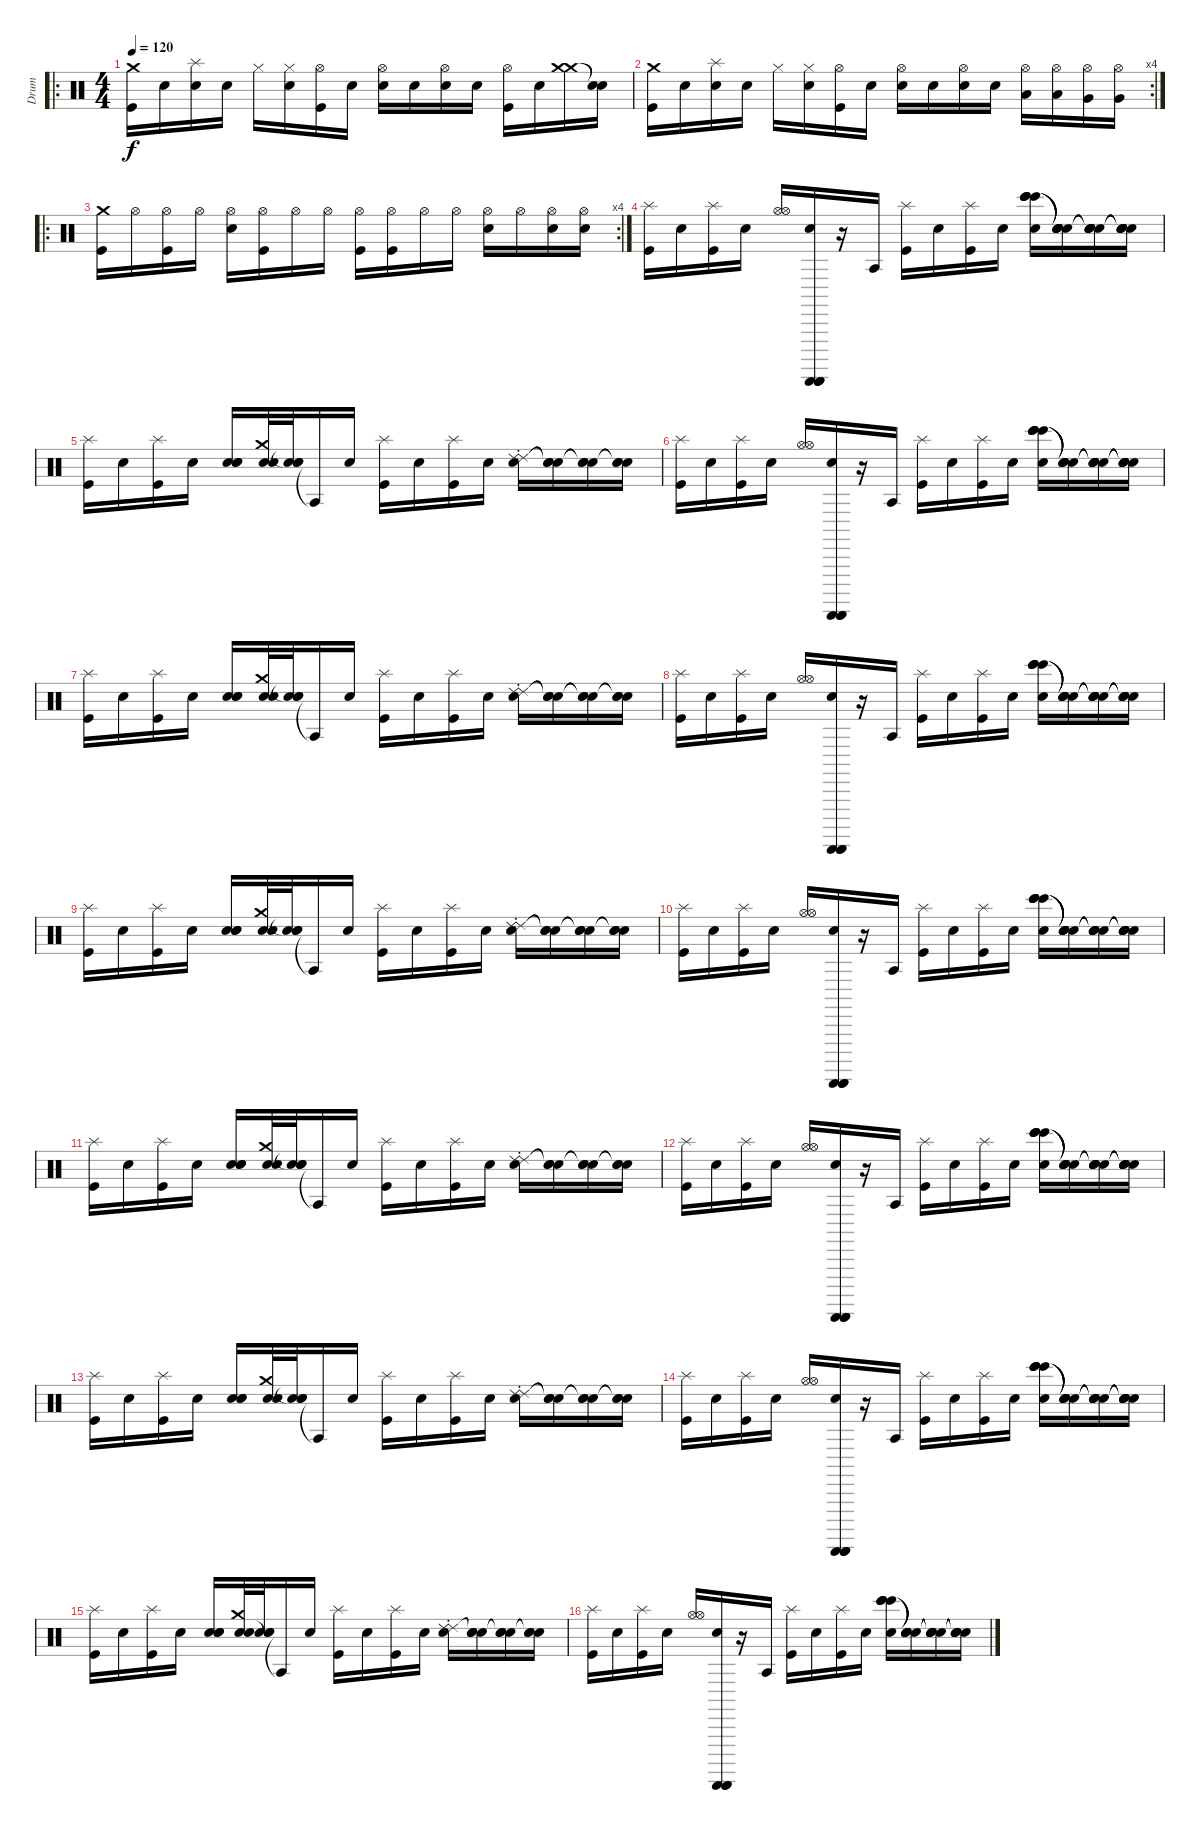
\track ("Drum" "Drum") {instrument percussion}
\staff {score}
\articulation defaults
\ro
\ts (4 4)
\tempo 120
\clef neutral
\ks c
("Crash medium (hit)" "Kick (hit)").16{dy f} "Snare (hit)".16 ("Splash (hit)" "Electric Snare (hit)").16 "Snare (hit)".16 "Hi-Hat (closed)".16 ("Hi-Hat (closed)" "Electric Snare (hit)").16 ("Hi-Hat (open)" "Kick (hit)").16 "Snare (hit)".16 ("Hi-Hat (open)" "Electric Snare (hit)").16 "Snare (hit)".16 ("Hi-Hat (open)" "Electric Snare (hit)").16 "Snare (hit)".16 ("Hi-Hat (open)" "Kick (hit)").16 "Snare (hit)".16 ("Crash medium (hit)" "Crash medium (hit)").16 ("Snare (hit)"{t} "Snare (hit)"{t}).16 |
\rc 4
("Crash medium (hit)" "Kick (hit)").16 "Snare (hit)".16 ("Splash (hit)" "Electric Snare (hit)").16 "Snare (hit)".16 "Hi-Hat (closed)".16 ("Hi-Hat (closed)" "Electric Snare (hit)").16 ("Hi-Hat (open)" "Kick (hit)").16 "Snare (hit)".16 ("Hi-Hat (open)" "Electric Snare (hit)").16 "Snare (hit)".16 ("Hi-Hat (open)" "Electric Snare (hit)").16 "Snare (hit)".16 ("Hi-Hat (open)" "Low Tom (hit)").16 ("Hi-Hat (open)" "Low Tom (hit)").16 ("Hi-Hat (open)" "Very Low Tom (hit)").16 ("Hi-Hat (open)" "Very Low Tom (hit)").16 |
\ro
\rc 4
("Crash medium (hit)" "Kick (hit)").16 "Hi-Hat (open)".16 ("Hi-Hat (open)" "Kick (hit)").16 "Hi-Hat (open)".16 ("Hi-Hat (open)" "Electric Snare (hit)").16 ("Hi-Hat (open)" "Kick (hit)").16 "Hi-Hat (open)".16 "Hi-Hat (open)".16 ("Hi-Hat (open)" "Kick (hit)").16 ("Hi-Hat (open)" "Kick (hit)").16 "Hi-Hat (open)".16 "Hi-Hat (open)".16 ("Hi-Hat (open)" "Electric Snare (hit)").16 "Hi-Hat (open)".16 ("Hi-Hat (open)" "Electric Snare (hit)").16 ("Hi-Hat (open)" "Electric Snare (hit)").16 |
("Splash (hit)" "Kick (hit)").16 "Snare (hit)".16 ("Splash (hit)" "Kick (hit)").16 "Snare (hit)".16 ("Hi-Hat (open)" "Hi-Hat (open)").16 ("Snare (hit)" "Guiro (scrap-return)" "Guiro (scrap-return)" "Guiro (scrap-return)").16 r.16 "Agogo tow (hit)".16 ("Splash (hit)" "Kick (hit)").16 "Snare (hit)".16 ("Splash (hit)" "Kick (hit)").16 "Snare (hit)".16 ("Snare (hit)" "Bongo High (hit)" "Bongo High (hit)" "Bongo High (hit)" "Bongo High (hit)").16 ("Snare (hit)" "Snare (hit)"{t} "Snare (hit)"{t} "Snare (hit)"{t} "Snare (hit)"{t}).16 ("Snare (hit)" "Snare (hit)"{t} "Snare (hit)"{t} "Snare (hit)"{t} "Snare (hit)"{t}).16 ("Snare (hit)" "Snare (hit)"{t} "Snare (hit)"{t} "Snare (hit)"{t} "Snare (hit)"{t}).16 |
("Splash (hit)" "Kick (hit)").16 "Snare (hit)".16 ("Splash (hit)" "Kick (hit)").16 "Snare (hit)".16 ("Snare (hit)" "Snare (hit)" "Snare (hit)").16 ("Crash medium (hit)" "Snare (hit)" "Snare (hit)").32 ("Snare (hit)"{t} "Snare (hit)" "Snare (hit)").32 "Agogo tow (hit)"{t}.16 "Snare (hit)".16 ("Splash (hit)" "Kick (hit)").16 "Snare (hit)".16 ("Splash (hit)" "Kick (hit)").16 "Snare (hit)".16 ("Snare (hit)" "Ride (choke) 2" "Ride (choke) 2").16 ("Snare (hit)" "Snare (hit)"{t} "Snare (hit)"{t}).16 ("Snare (hit)" "Snare (hit)"{t} "Snare (hit)"{t}).16 ("Snare (hit)" "Snare (hit)"{t} "Snare (hit)"{t}).16 |
("Splash (hit)" "Kick (hit)").16 "Snare (hit)".16 ("Splash (hit)" "Kick (hit)").16 "Snare (hit)".16 ("Hi-Hat (open)" "Hi-Hat (open)").16 ("Snare (hit)" "Guiro (scrap-return)" "Guiro (scrap-return)" "Guiro (scrap-return)").16 r.16 "Agogo tow (hit)".16 ("Splash (hit)" "Kick (hit)").16 "Snare (hit)".16 ("Splash (hit)" "Kick (hit)").16 "Snare (hit)".16 ("Snare (hit)" "Bongo High (hit)" "Bongo High (hit)" "Bongo High (hit)" "Bongo High (hit)").16 ("Snare (hit)" "Snare (hit)"{t} "Snare (hit)"{t} "Snare (hit)"{t} "Snare (hit)"{t}).16 ("Snare (hit)" "Snare (hit)"{t} "Snare (hit)"{t} "Snare (hit)"{t} "Snare (hit)"{t}).16 ("Snare (hit)" "Snare (hit)"{t} "Snare (hit)"{t} "Snare (hit)"{t} "Snare (hit)"{t}).16 |
("Splash (hit)" "Kick (hit)").16 "Snare (hit)".16 ("Splash (hit)" "Kick (hit)").16 "Snare (hit)".16 ("Snare (hit)" "Snare (hit)" "Snare (hit)").16 ("Crash medium (hit)" "Snare (hit)" "Snare (hit)").32 ("Snare (hit)"{t} "Snare (hit)" "Snare (hit)").32 "Agogo tow (hit)"{t}.16 "Snare (hit)".16 ("Splash (hit)" "Kick (hit)").16 "Snare (hit)".16 ("Splash (hit)" "Kick (hit)").16 "Snare (hit)".16 ("Snare (hit)" "Ride (choke) 2" "Ride (choke) 2").16 ("Snare (hit)" "Snare (hit)"{t} "Snare (hit)"{t}).16 ("Snare (hit)" "Snare (hit)"{t} "Snare (hit)"{t}).16 ("Snare (hit)" "Snare (hit)"{t} "Snare (hit)"{t}).16 |
("Splash (hit)" "Kick (hit)").16 "Snare (hit)".16 ("Splash (hit)" "Kick (hit)").16 "Snare (hit)".16 ("Hi-Hat (open)" "Hi-Hat (open)").16 ("Snare (hit)" "Guiro (scrap-return)" "Guiro (scrap-return)" "Guiro (scrap-return)").16 r.16 "Agogo tow (hit)".16 ("Splash (hit)" "Kick (hit)").16 "Snare (hit)".16 ("Splash (hit)" "Kick (hit)").16 "Snare (hit)".16 ("Snare (hit)" "Bongo High (hit)" "Bongo High (hit)" "Bongo High (hit)" "Bongo High (hit)").16 ("Snare (hit)" "Snare (hit)"{t} "Snare (hit)"{t} "Snare (hit)"{t} "Snare (hit)"{t}).16 ("Snare (hit)" "Snare (hit)"{t} "Snare (hit)"{t} "Snare (hit)"{t} "Snare (hit)"{t}).16 ("Snare (hit)" "Snare (hit)"{t} "Snare (hit)"{t} "Snare (hit)"{t} "Snare (hit)"{t}).16 |
("Splash (hit)" "Kick (hit)").16 "Snare (hit)".16 ("Splash (hit)" "Kick (hit)").16 "Snare (hit)".16 ("Snare (hit)" "Snare (hit)" "Snare (hit)").16 ("Crash medium (hit)" "Snare (hit)" "Snare (hit)").32 ("Snare (hit)"{t} "Snare (hit)" "Snare (hit)").32 "Agogo tow (hit)"{t}.16 "Snare (hit)".16 ("Splash (hit)" "Kick (hit)").16 "Snare (hit)".16 ("Splash (hit)" "Kick (hit)").16 "Snare (hit)".16 ("Snare (hit)" "Ride (choke) 2" "Ride (choke) 2").16 ("Snare (hit)" "Snare (hit)"{t} "Snare (hit)"{t}).16 ("Snare (hit)" "Snare (hit)"{t} "Snare (hit)"{t}).16 ("Snare (hit)" "Snare (hit)"{t} "Snare (hit)"{t}).16 |
("Splash (hit)" "Kick (hit)").16 "Snare (hit)".16 ("Splash (hit)" "Kick (hit)").16 "Snare (hit)".16 ("Hi-Hat (open)" "Hi-Hat (open)").16 ("Snare (hit)" "Guiro (scrap-return)" "Guiro (scrap-return)" "Guiro (scrap-return)").16 r.16 "Agogo tow (hit)".16 ("Splash (hit)" "Kick (hit)").16 "Snare (hit)".16 ("Splash (hit)" "Kick (hit)").16 "Snare (hit)".16 ("Snare (hit)" "Bongo High (hit)" "Bongo High (hit)" "Bongo High (hit)" "Bongo High (hit)").16 ("Snare (hit)" "Snare (hit)"{t} "Snare (hit)"{t} "Snare (hit)"{t} "Snare (hit)"{t}).16 ("Snare (hit)" "Snare (hit)"{t} "Snare (hit)"{t} "Snare (hit)"{t} "Snare (hit)"{t}).16 ("Snare (hit)" "Snare (hit)"{t} "Snare (hit)"{t} "Snare (hit)"{t} "Snare (hit)"{t}).16 |
("Splash (hit)" "Kick (hit)").16 "Snare (hit)".16 ("Splash (hit)" "Kick (hit)").16 "Snare (hit)".16 ("Snare (hit)" "Snare (hit)" "Snare (hit)").16 ("Crash medium (hit)" "Snare (hit)" "Snare (hit)").32 ("Snare (hit)"{t} "Snare (hit)" "Snare (hit)").32 "Agogo tow (hit)"{t}.16 "Snare (hit)".16 ("Splash (hit)" "Kick (hit)").16 "Snare (hit)".16 ("Splash (hit)" "Kick (hit)").16 "Snare (hit)".16 ("Snare (hit)" "Ride (choke) 2" "Ride (choke) 2").16 ("Snare (hit)" "Snare (hit)"{t} "Snare (hit)"{t}).16 ("Snare (hit)" "Snare (hit)"{t} "Snare (hit)"{t}).16 ("Snare (hit)" "Snare (hit)"{t} "Snare (hit)"{t}).16 |
("Splash (hit)" "Kick (hit)").16 "Snare (hit)".16 ("Splash (hit)" "Kick (hit)").16 "Snare (hit)".16 ("Hi-Hat (open)" "Hi-Hat (open)").16 ("Snare (hit)" "Guiro (scrap-return)" "Guiro (scrap-return)" "Guiro (scrap-return)").16 r.16 "Agogo tow (hit)".16 ("Splash (hit)" "Kick (hit)").16 "Snare (hit)".16 ("Splash (hit)" "Kick (hit)").16 "Snare (hit)".16 ("Snare (hit)" "Bongo High (hit)" "Bongo High (hit)" "Bongo High (hit)" "Bongo High (hit)").16 ("Snare (hit)" "Snare (hit)"{t} "Snare (hit)"{t} "Snare (hit)"{t} "Snare (hit)"{t}).16 ("Snare (hit)" "Snare (hit)"{t} "Snare (hit)"{t} "Snare (hit)"{t} "Snare (hit)"{t}).16 ("Snare (hit)" "Snare (hit)"{t} "Snare (hit)"{t} "Snare (hit)"{t} "Snare (hit)"{t}).16 |
("Splash (hit)" "Kick (hit)").16 "Snare (hit)".16 ("Splash (hit)" "Kick (hit)").16 "Snare (hit)".16 ("Snare (hit)" "Snare (hit)" "Snare (hit)").16 ("Crash medium (hit)" "Snare (hit)" "Snare (hit)").32 ("Snare (hit)"{t} "Snare (hit)" "Snare (hit)").32 "Agogo tow (hit)"{t}.16 "Snare (hit)".16 ("Splash (hit)" "Kick (hit)").16 "Snare (hit)".16 ("Splash (hit)" "Kick (hit)").16 "Snare (hit)".16 ("Snare (hit)" "Ride (choke) 2" "Ride (choke) 2").16 ("Snare (hit)" "Snare (hit)"{t} "Snare (hit)"{t}).16 ("Snare (hit)" "Snare (hit)"{t} "Snare (hit)"{t}).16 ("Snare (hit)" "Snare (hit)"{t} "Snare (hit)"{t}).16 |
("Splash (hit)" "Kick (hit)").16 "Snare (hit)".16 ("Splash (hit)" "Kick (hit)").16 "Snare (hit)".16 ("Hi-Hat (open)" "Hi-Hat (open)").16 ("Snare (hit)" "Guiro (scrap-return)" "Guiro (scrap-return)" "Guiro (scrap-return)").16 r.16 "Agogo tow (hit)".16 ("Splash (hit)" "Kick (hit)").16 "Snare (hit)".16 ("Splash (hit)" "Kick (hit)").16 "Snare (hit)".16 ("Snare (hit)" "Bongo High (hit)" "Bongo High (hit)" "Bongo High (hit)" "Bongo High (hit)").16 ("Snare (hit)" "Snare (hit)"{t} "Snare (hit)"{t} "Snare (hit)"{t} "Snare (hit)"{t}).16 ("Snare (hit)" "Snare (hit)"{t} "Snare (hit)"{t} "Snare (hit)"{t} "Snare (hit)"{t}).16 ("Snare (hit)" "Snare (hit)"{t} "Snare (hit)"{t} "Snare (hit)"{t} "Snare (hit)"{t}).16 |
("Splash (hit)" "Kick (hit)").16 "Snare (hit)".16 ("Splash (hit)" "Kick (hit)").16 "Snare (hit)".16 ("Snare (hit)" "Snare (hit)" "Snare (hit)").16 ("Crash medium (hit)" "Snare (hit)" "Snare (hit)").32 ("Snare (hit)"{t} "Snare (hit)" "Snare (hit)").32 "Agogo tow (hit)"{t}.16 "Snare (hit)".16 ("Splash (hit)" "Kick (hit)").16 "Snare (hit)".16 ("Splash (hit)" "Kick (hit)").16 "Snare (hit)".16 ("Snare (hit)" "Ride (choke) 2" "Ride (choke) 2").16 ("Snare (hit)" "Snare (hit)"{t} "Snare (hit)"{t}).16 ("Snare (hit)" "Snare (hit)"{t} "Snare (hit)"{t}).16 ("Snare (hit)" "Snare (hit)"{t} "Snare (hit)"{t}).16 |
("Splash (hit)" "Kick (hit)").16 "Snare (hit)".16 ("Splash (hit)" "Kick (hit)").16 "Snare (hit)".16 ("Hi-Hat (open)" "Hi-Hat (open)").16 ("Snare (hit)" "Guiro (scrap-return)" "Guiro (scrap-return)" "Guiro (scrap-return)").16 r.16 "Agogo tow (hit)".16 ("Splash (hit)" "Kick (hit)").16 "Snare (hit)".16 ("Splash (hit)" "Kick (hit)").16 "Snare (hit)".16 ("Snare (hit)" "Bongo High (hit)" "Bongo High (hit)" "Bongo High (hit)" "Bongo High (hit)").16 ("Snare (hit)" "Snare (hit)"{t} "Snare (hit)"{t} "Snare (hit)"{t} "Snare (hit)"{t}).16 ("Snare (hit)" "Snare (hit)"{t} "Snare (hit)"{t} "Snare (hit)"{t} "Snare (hit)"{t}).16 ("Snare (hit)" "Snare (hit)"{t} "Snare (hit)"{t} "Snare (hit)"{t} "Snare (hit)"{t}).16
